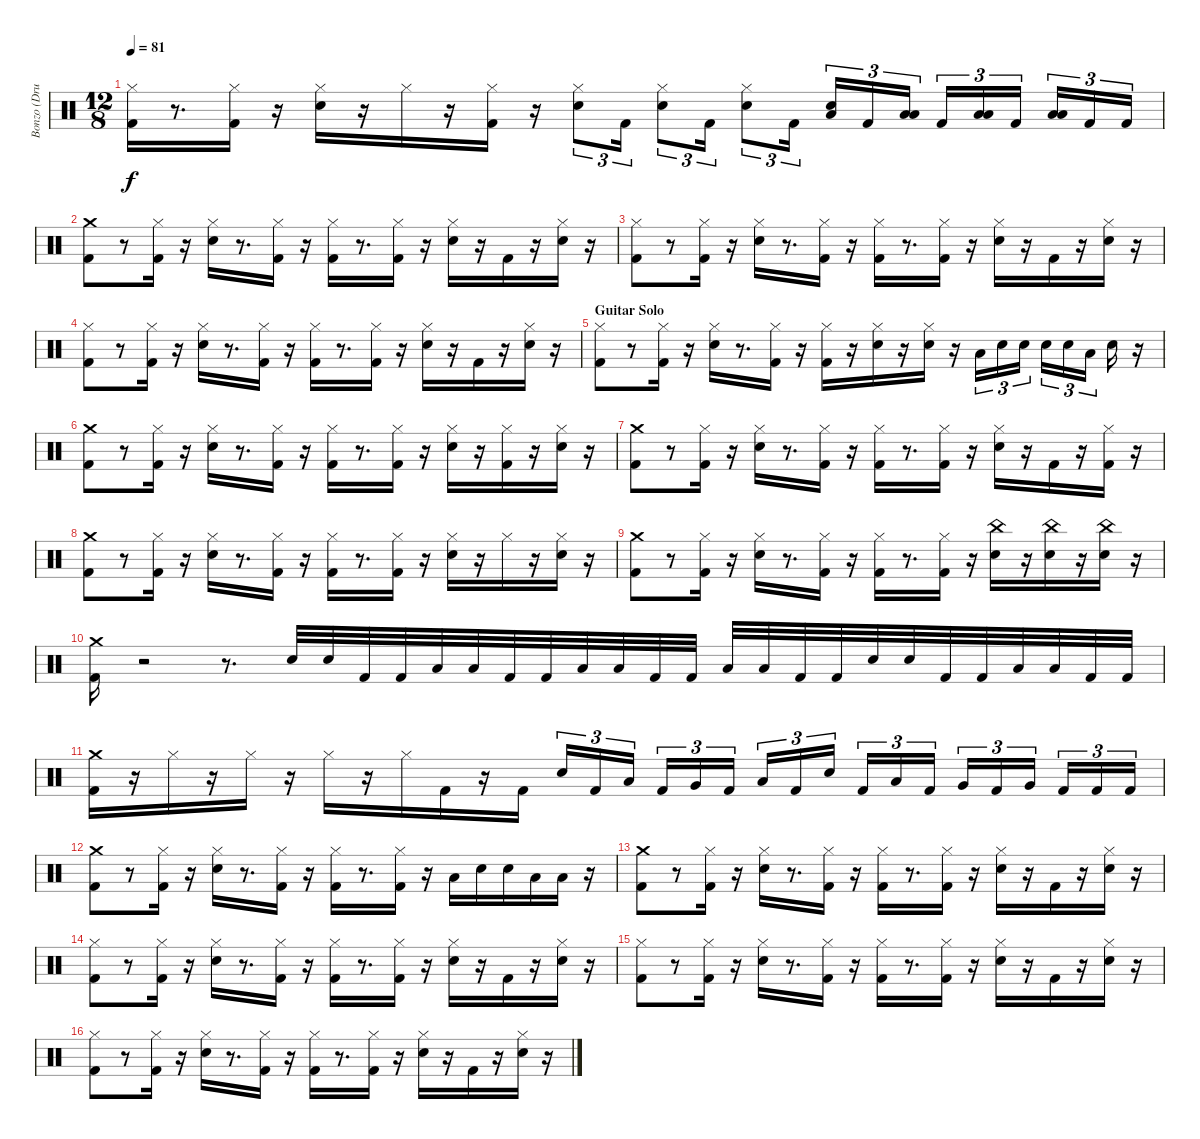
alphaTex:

\track ("Bonzo (Drums)" "Bonzo (Dru") {instrument percussion}
\staff {score}
\articulation defaults
\ts (12 8)
\tempo 81
\clef neutral
\ks c
("Hi-Hat (closed)" "Kick (hit) 2").16{dy f} r.8{d} ("Hi-Hat (closed)" "Kick (hit) 2").16 r.16 ("Hi-Hat (closed)" "Electric Snare (hit)").16 r.16 "Hi-Hat (closed)".16 r.16 ("Hi-Hat (closed)" "Kick (hit) 2").16 r.16 ("Hi-Hat (closed)" "Electric Snare (hit)").8{tu (3 2)} "Kick (hit) 2".16{tu (3 2)} ("Hi-Hat (closed)" "Electric Snare (hit)").8{tu (3 2)} "Kick (hit) 2".16{tu (3 2)} ("Hi-Hat (closed)" "Electric Snare (hit)").8{tu (3 2)} "Kick (hit) 2".16{tu (3 2)} ("Electric Snare (hit)" "Low Tom (hit)").16{tu (3 2)} "Kick (hit) 2".16{tu (3 2)} ("Low Floor Tom (hit)" "Low Tom (hit)").16{tu (3 2)} "Kick (hit) 2".16{tu (3 2)} ("Low Tom (hit)" "Low Floor Tom (hit)").16{tu (3 2)} "Kick (hit) 2".16{tu (3 2)} ("Low Tom (hit)" "Low Floor Tom (hit)").16{tu (3 2)} "Kick (hit) 2".16{tu (3 2)} "Kick (hit) 2".16{tu (3 2)} |
("Kick (hit) 2" "Crash medium (hit)").8 r.8 ("Kick (hit) 2" "Hi-Hat (closed)").16 r.16 ("Hi-Hat (closed)" "Electric Snare (hit)").16 r.8{d} ("Hi-Hat (closed)" "Kick (hit) 2").16 r.16 ("Hi-Hat (closed)" "Kick (hit) 2").16 r.8{d} ("Hi-Hat (closed)" "Kick (hit) 2").16 r.16 ("Hi-Hat (closed)" "Electric Snare (hit)").16 r.16 "Kick (hit) 2".16 r.16 ("Hi-Hat (closed)" "Electric Snare (hit)").16 r.16 |
("Kick (hit) 2" "Hi-Hat (closed)").8 r.8 ("Kick (hit) 2" "Hi-Hat (closed)").16 r.16 ("Hi-Hat (closed)" "Electric Snare (hit)").16 r.8{d} ("Hi-Hat (closed)" "Kick (hit) 2").16 r.16 ("Hi-Hat (closed)" "Kick (hit) 2").16 r.8{d} ("Hi-Hat (closed)" "Kick (hit) 2").16 r.16 ("Hi-Hat (closed)" "Electric Snare (hit)").16 r.16 "Kick (hit) 2".16 r.16 ("Hi-Hat (closed)" "Electric Snare (hit)").16 r.16 |
("Kick (hit) 2" "Hi-Hat (closed)").8 r.8 ("Kick (hit) 2" "Hi-Hat (closed)").16 r.16 ("Hi-Hat (closed)" "Electric Snare (hit)").16 r.8{d} ("Hi-Hat (closed)" "Kick (hit) 2").16 r.16 ("Hi-Hat (closed)" "Kick (hit) 2").16 r.8{d} ("Hi-Hat (closed)" "Kick (hit) 2").16 r.16 ("Hi-Hat (closed)" "Electric Snare (hit)").16 r.16 "Kick (hit) 2".16 r.16 ("Hi-Hat (closed)" "Electric Snare (hit)").16 r.16 |
\section ("" "Guitar Solo")
("Kick (hit) 2" "Hi-Hat (closed)").8 r.8 ("Kick (hit) 2" "Hi-Hat (closed)").16 r.16 ("Hi-Hat (closed)" "Electric Snare (hit)").16 r.8{d} ("Hi-Hat (closed)" "Kick (hit) 2").16 r.16 ("Hi-Hat (closed)" "Kick (hit) 2").16 r.16 ("Hi-Hat (closed)" "Electric Snare (hit)").16 r.16 ("Hi-Hat (closed)" "Electric Snare (hit)").16 r.16 "Low Tom (hit)".16{tu (3 2)} "Electric Snare (hit)".16{tu (3 2)} "Electric Snare (hit)".16{tu (3 2)} "Electric Snare (hit)".16{tu (3 2)} "Electric Snare (hit)".16{tu (3 2)} "Low Tom (hit)".16{tu (3 2)} "Electric Snare (hit)".16 r.16 |
("Kick (hit) 2" "Crash medium (hit)").8 r.8 ("Kick (hit) 2" "Hi-Hat (closed)").16 r.16 ("Hi-Hat (closed)" "Electric Snare (hit)").16 r.8{d} ("Hi-Hat (closed)" "Kick (hit) 2").16 r.16 ("Hi-Hat (closed)" "Kick (hit) 2").16 r.8{d} ("Hi-Hat (closed)" "Kick (hit) 2").16 r.16 ("Hi-Hat (closed)" "Electric Snare (hit)").16 r.16 ("Kick (hit) 2" "Hi-Hat (closed)").16 r.16 ("Hi-Hat (closed)" "Electric Snare (hit)").16 r.16 |
("Kick (hit) 2" "Crash medium (hit)").8 r.8 ("Kick (hit) 2" "Hi-Hat (closed)").16 r.16 ("Hi-Hat (closed)" "Electric Snare (hit)").16 r.8{d} ("Hi-Hat (closed)" "Kick (hit) 2").16 r.16 ("Hi-Hat (closed)" "Kick (hit) 2").16 r.8{d} ("Hi-Hat (closed)" "Kick (hit) 2").16 r.16 ("Hi-Hat (closed)" "Electric Snare (hit)").16 r.16 "Kick (hit) 2".16 r.16 ("Hi-Hat (closed)" "Kick (hit) 2").16 r.16 |
("Kick (hit) 2" "Crash medium (hit)").8 r.8 ("Kick (hit) 2" "Hi-Hat (closed)").16 r.16 ("Hi-Hat (closed)" "Electric Snare (hit)").16 r.8{d} ("Hi-Hat (closed)" "Kick (hit) 2").16 r.16 ("Hi-Hat (closed)" "Kick (hit) 2").16 r.8{d} ("Hi-Hat (closed)" "Kick (hit) 2").16 r.16 ("Hi-Hat (closed)" "Electric Snare (hit)").16 r.16 "Hi-Hat (closed)".16 r.16 ("Hi-Hat (closed)" "Electric Snare (hit)").16 r.16 |
("Kick (hit) 2" "Crash medium (hit)").8 r.8 ("Kick (hit) 2" "Hi-Hat (closed)").16 r.16 ("Hi-Hat (closed)" "Electric Snare (hit)").16 r.8{d} ("Hi-Hat (closed)" "Kick (hit) 2").16 r.16 ("Hi-Hat (closed)" "Kick (hit) 2").16 r.8{d} ("Hi-Hat (closed)" "Kick (hit) 2").16 r.16 ("Electric Snare (hit)" "China (hit)").16 r.16 ("Electric Snare (hit)" "China (hit)").16 r.16 ("Electric Snare (hit)" "China (hit)").16 r.16 |
("Kick (hit) 2" "Crash medium (hit)").16 r.2 r.8{d} "Electric Snare (hit)".32 "Electric Snare (hit)".32 "Kick (hit) 2".32 "Kick (hit) 2".32 "Low Tom (hit)".32 "Low Tom (hit)".32 "Kick (hit) 2".32 "Kick (hit) 2".32 "Low Floor Tom (hit)".32 "Low Floor Tom (hit)".32 "Kick (hit) 2".32 "Kick (hit) 2".32 "Low Tom (hit)".32 "Low Tom (hit)".32 "Kick (hit) 2".32 "Kick (hit) 2".32 "Electric Snare (hit)".32 "Electric Snare (hit)".32 "Kick (hit) 2".32 "Kick (hit) 2".32 "Low Tom (hit)".32 "Low Tom (hit)".32 "Kick (hit) 2".32 "Kick (hit) 2".32 |
("Crash medium (hit)" "Kick (hit) 2").16 r.16 "Hi-Hat (closed)".16 r.16 "Hi-Hat (closed)".16 r.16 "Hi-Hat (closed)".16 r.16 "Hi-Hat (closed)".16 "Kick (hit) 2".16 r.16 "Kick (hit) 2".16 "Electric Snare (hit)".16{tu (3 2)} "Kick (hit) 2".16{tu (3 2)} "Low Tom (hit)".16{tu (3 2)} "Kick (hit) 2".16{tu (3 2)} "Very Low Tom (hit)".16{tu (3 2)} "Kick (hit) 2".16{tu (3 2)} "Low Floor Tom (hit)".16{tu (3 2)} "Kick (hit) 2".16{tu (3 2)} "Electric Snare (hit)".16{tu (3 2)} "Kick (hit) 2".16{tu (3 2)} "Low Tom (hit)".16{tu (3 2)} "Kick (hit) 2".16{tu (3 2)} "Very Low Tom (hit)".16{tu (3 2)} "Kick (hit) 2".16{tu (3 2)} "Very Low Tom (hit)".16{tu (3 2)} "Kick (hit) 2".16{tu (3 2)} "Kick (hit) 2".16{tu (3 2)} "Kick (hit) 2".16{tu (3 2)} |
("Kick (hit) 2" "Crash medium (hit)").8 r.8 ("Kick (hit) 2" "Hi-Hat (closed)").16 r.16 ("Hi-Hat (closed)" "Electric Snare (hit)").16 r.8{d} ("Hi-Hat (closed)" "Kick (hit) 2").16 r.16 ("Hi-Hat (closed)" "Kick (hit) 2").16 r.8{d} ("Kick (hit) 2" "Hi-Hat (closed)").16 r.16 "Low Tom (hit)".16 "Electric Snare (hit)".16 "Electric Snare (hit)".16 "Low Tom (hit)".16 "Low Floor Tom (hit)".16 r.16 |
("Kick (hit) 2" "Crash medium (hit)").8 r.8 ("Kick (hit) 2" "Hi-Hat (closed)").16 r.16 ("Hi-Hat (closed)" "Electric Snare (hit)").16 r.8{d} ("Hi-Hat (closed)" "Kick (hit) 2").16 r.16 ("Hi-Hat (closed)" "Kick (hit) 2").16 r.8{d} ("Hi-Hat (closed)" "Kick (hit) 2").16 r.16 ("Hi-Hat (closed)" "Electric Snare (hit)").16 r.16 "Kick (hit) 2".16 r.16 ("Hi-Hat (closed)" "Electric Snare (hit)").16 r.16 |
("Kick (hit) 2" "Hi-Hat (closed)").8 r.8 ("Kick (hit) 2" "Hi-Hat (closed)").16 r.16 ("Hi-Hat (closed)" "Electric Snare (hit)").16 r.8{d} ("Hi-Hat (closed)" "Kick (hit) 2").16 r.16 ("Hi-Hat (closed)" "Kick (hit) 2").16 r.8{d} ("Hi-Hat (closed)" "Kick (hit) 2").16 r.16 ("Hi-Hat (closed)" "Electric Snare (hit)").16 r.16 "Kick (hit) 2".16 r.16 ("Hi-Hat (closed)" "Electric Snare (hit)").16 r.16 |
("Kick (hit) 2" "Hi-Hat (closed)").8 r.8 ("Kick (hit) 2" "Hi-Hat (closed)").16 r.16 ("Hi-Hat (closed)" "Electric Snare (hit)").16 r.8{d} ("Hi-Hat (closed)" "Kick (hit) 2").16 r.16 ("Hi-Hat (closed)" "Kick (hit) 2").16 r.8{d} ("Hi-Hat (closed)" "Kick (hit) 2").16 r.16 ("Hi-Hat (closed)" "Electric Snare (hit)").16 r.16 "Kick (hit) 2".16 r.16 ("Hi-Hat (closed)" "Electric Snare (hit)").16 r.16 |
("Kick (hit) 2" "Hi-Hat (closed)").8 r.8 ("Kick (hit) 2" "Hi-Hat (closed)").16 r.16 ("Hi-Hat (closed)" "Electric Snare (hit)").16 r.8{d} ("Hi-Hat (closed)" "Kick (hit) 2").16 r.16 ("Hi-Hat (closed)" "Kick (hit) 2").16 r.8{d} ("Hi-Hat (closed)" "Kick (hit) 2").16 r.16 ("Hi-Hat (closed)" "Electric Snare (hit)").16 r.16 "Kick (hit) 2".16 r.16 ("Hi-Hat (closed)" "Electric Snare (hit)").16 r.16
